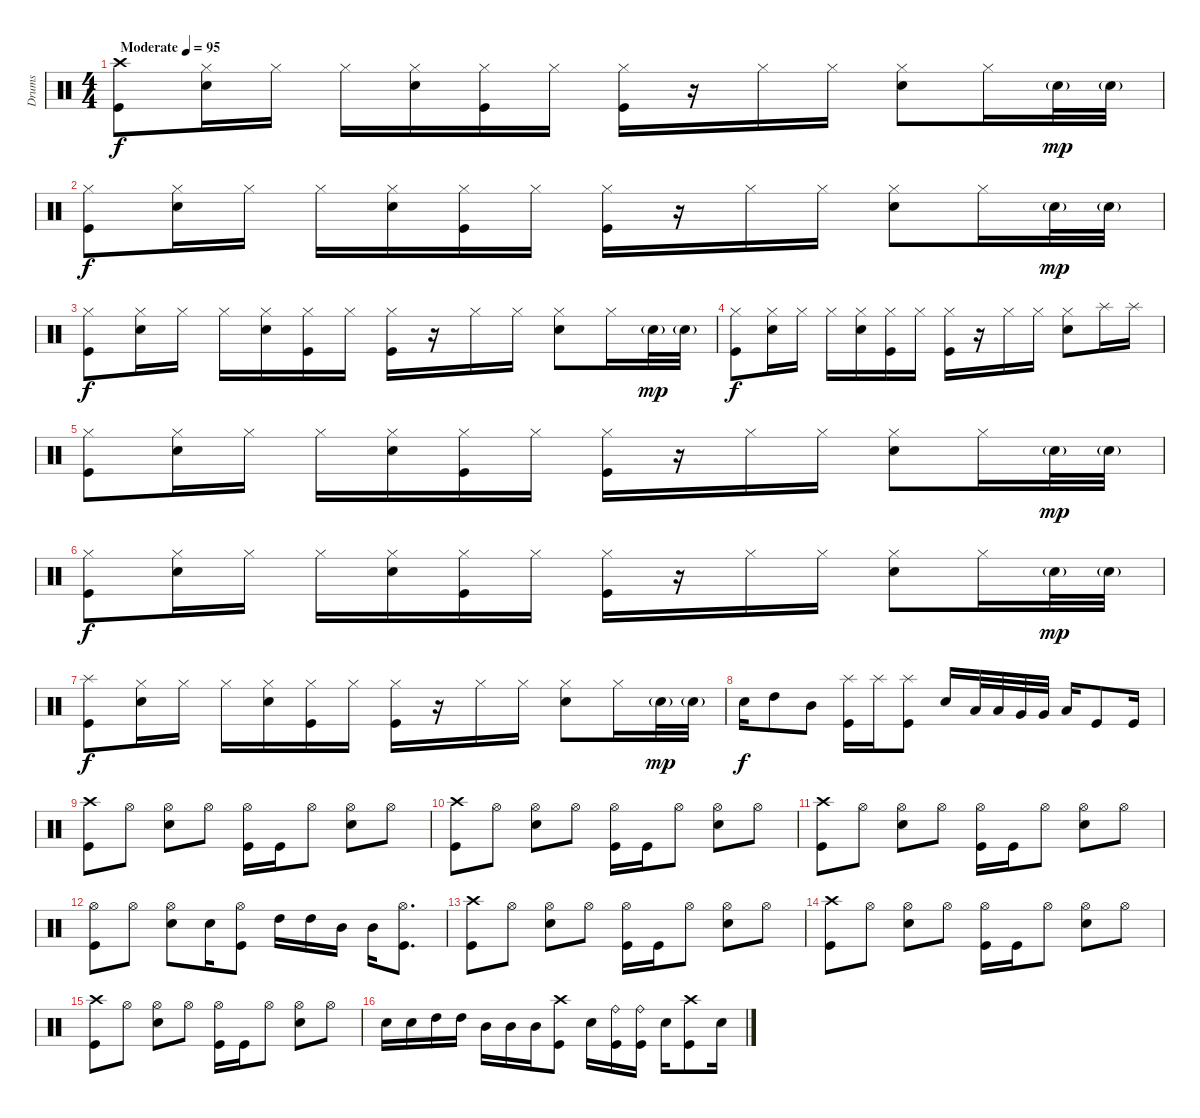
\track ("Drums" "Drums") {instrument percussion}
\staff {score}
\articulation defaults
\ts (4 4)
\tempo (95 "Moderate")
\clef neutral
\ks c
("Crash high (hit)" "Kick (hit)").8{dy f} ("Hi-Hat (closed)" "Electric Snare (hit)").16 "Hi-Hat (closed)".16 "Hi-Hat (closed)".16 ("Hi-Hat (closed)" "Electric Snare (hit)").16 ("Hi-Hat (closed)" "Kick (hit)").16 "Hi-Hat (closed)".16 ("Hi-Hat (closed)" "Kick (hit)").16 r.16 "Hi-Hat (closed)".16 "Hi-Hat (closed)".16 ("Hi-Hat (closed)" "Electric Snare (hit)").8 "Hi-Hat (closed)".16 "Electric Snare (hit)"{g}.32{dy mp} "Electric Snare (hit)"{g}.32 |
("Hi-Hat (closed)" "Kick (hit)").8{dy f} ("Hi-Hat (closed)" "Electric Snare (hit)").16 "Hi-Hat (closed)".16 "Hi-Hat (closed)".16 ("Hi-Hat (closed)" "Electric Snare (hit)").16 ("Hi-Hat (closed)" "Kick (hit)").16 "Hi-Hat (closed)".16 ("Hi-Hat (closed)" "Kick (hit)").16 r.16 "Hi-Hat (closed)".16 "Hi-Hat (closed)".16 ("Hi-Hat (closed)" "Electric Snare (hit)").8 "Hi-Hat (closed)".16 "Electric Snare (hit)"{g}.32{dy mp} "Electric Snare (hit)"{g}.32 |
("Hi-Hat (closed)" "Kick (hit)").8{dy f} ("Hi-Hat (closed)" "Electric Snare (hit)").16 "Hi-Hat (closed)".16 "Hi-Hat (closed)".16 ("Hi-Hat (closed)" "Electric Snare (hit)").16 ("Hi-Hat (closed)" "Kick (hit)").16 "Hi-Hat (closed)".16 ("Hi-Hat (closed)" "Kick (hit)").16 r.16 "Hi-Hat (closed)".16 "Hi-Hat (closed)".16 ("Hi-Hat (closed)" "Electric Snare (hit)").8 "Hi-Hat (closed)".16 "Electric Snare (hit)"{g}.32{dy mp} "Electric Snare (hit)"{g}.32 |
("Hi-Hat (closed)" "Kick (hit)").8{dy f} ("Hi-Hat (closed)" "Electric Snare (hit)").16 "Hi-Hat (closed)".16 "Hi-Hat (closed)".16 ("Hi-Hat (closed)" "Electric Snare (hit)").16 ("Hi-Hat (closed)" "Kick (hit)").16 "Hi-Hat (closed)".16 ("Hi-Hat (closed)" "Kick (hit)").16 r.16 "Hi-Hat (closed)".16 "Hi-Hat (closed)".16 ("Hi-Hat (closed)" "Electric Snare (hit)").8 "Splash (hit)".16 "Splash (hit)".16 |
("Hi-Hat (closed)" "Kick (hit)").8 ("Hi-Hat (closed)" "Electric Snare (hit)").16 "Hi-Hat (closed)".16 "Hi-Hat (closed)".16 ("Hi-Hat (closed)" "Electric Snare (hit)").16 ("Hi-Hat (closed)" "Kick (hit)").16 "Hi-Hat (closed)".16 ("Hi-Hat (closed)" "Kick (hit)").16 r.16 "Hi-Hat (closed)".16 "Hi-Hat (closed)".16 ("Hi-Hat (closed)" "Electric Snare (hit)").8 "Hi-Hat (closed)".16 "Electric Snare (hit)"{g}.32{dy mp} "Electric Snare (hit)"{g}.32 |
("Hi-Hat (closed)" "Kick (hit)").8{dy f} ("Hi-Hat (closed)" "Electric Snare (hit)").16 "Hi-Hat (closed)".16 "Hi-Hat (closed)".16 ("Hi-Hat (closed)" "Electric Snare (hit)").16 ("Hi-Hat (closed)" "Kick (hit)").16 "Hi-Hat (closed)".16 ("Hi-Hat (closed)" "Kick (hit)").16 r.16 "Hi-Hat (closed)".16 "Hi-Hat (closed)".16 ("Hi-Hat (closed)" "Electric Snare (hit)").8 "Hi-Hat (closed)".16 "Electric Snare (hit)"{g}.32{dy mp} "Electric Snare (hit)"{g}.32 |
("Splash (hit)" "Kick (hit)").8{dy f} ("Hi-Hat (closed)" "Electric Snare (hit)").16 "Hi-Hat (closed)".16 "Hi-Hat (closed)".16 ("Hi-Hat (closed)" "Electric Snare (hit)").16 ("Hi-Hat (closed)" "Kick (hit)").16 "Hi-Hat (closed)".16 ("Hi-Hat (closed)" "Kick (hit)").16 r.16 "Hi-Hat (closed)".16 "Hi-Hat (closed)".16 ("Hi-Hat (closed)" "Electric Snare (hit)").8 "Hi-Hat (closed)".16 "Electric Snare (hit)"{g}.32{dy mp} "Electric Snare (hit)"{g}.32 |
"Electric Snare (hit)".16{dy f} "High Tom (hit)".8 "Mid Tom (hit)".8 ("Splash (hit)" "Kick (hit)").16 "Splash (hit)".16 ("Splash (hit)" "Kick (hit)").8 "Electric Snare (hit)".16 "Low Tom (hit)".32 "Low Tom (hit)".32 "Very Low Tom (hit)".32 "Very Low Tom (hit)".32 "Low Floor Tom (hit)".16 "Kick (hit)".8 "Kick (hit)".16 |
("Crash high (hit)" "Kick (hit)").8 "Hi-Hat (open)".8 ("Hi-Hat (open)" "Electric Snare (hit)").8 "Hi-Hat (open)".8 ("Hi-Hat (open)" "Kick (hit)").16 "Kick (hit)".16 "Hi-Hat (open)".8 ("Hi-Hat (open)" "Electric Snare (hit)").8 "Hi-Hat (open)".8 |
("Crash high (hit)" "Kick (hit)").8 "Hi-Hat (open)".8 ("Hi-Hat (open)" "Electric Snare (hit)").8 "Hi-Hat (open)".8 ("Hi-Hat (open)" "Kick (hit)").16 "Kick (hit)".16 "Hi-Hat (open)".8 ("Hi-Hat (open)" "Electric Snare (hit)").8 "Hi-Hat (open)".8 |
("Crash high (hit)" "Kick (hit)").8 "Hi-Hat (open)".8 ("Hi-Hat (open)" "Electric Snare (hit)").8 "Hi-Hat (open)".8 ("Hi-Hat (open)" "Kick (hit)").16 "Kick (hit)".16 "Hi-Hat (open)".8 ("Hi-Hat (open)" "Electric Snare (hit)").8 "Hi-Hat (open)".8 |
("Hi-Hat (open)" "Kick (hit)").8 "Hi-Hat (open)".8 ("Hi-Hat (open)" "Electric Snare (hit)").8 "Electric Snare (hit)".16 ("Hi-Hat (open)" "Kick (hit)").8 "High Tom (hit)".16 "High Tom (hit)".16 "Mid Tom (hit)".16 "Mid Tom (hit)".16 ("Hi-Hat (open)" "Kick (hit)").8{d} |
("Crash high (hit)" "Kick (hit)").8 "Hi-Hat (open)".8 ("Hi-Hat (open)" "Electric Snare (hit)").8 "Hi-Hat (open)".8 ("Hi-Hat (open)" "Kick (hit)").16 "Kick (hit)".16 "Hi-Hat (open)".8 ("Hi-Hat (open)" "Electric Snare (hit)").8 "Hi-Hat (open)".8 |
("Crash high (hit)" "Kick (hit)").8 "Hi-Hat (open)".8 ("Hi-Hat (open)" "Electric Snare (hit)").8 "Hi-Hat (open)".8 ("Hi-Hat (open)" "Kick (hit)").16 "Kick (hit)".16 "Hi-Hat (open)".8 ("Hi-Hat (open)" "Electric Snare (hit)").8 "Hi-Hat (open)".8 |
("Crash high (hit)" "Kick (hit)").8 "Hi-Hat (open)".8 ("Hi-Hat (open)" "Electric Snare (hit)").8 "Hi-Hat (open)".8 ("Hi-Hat (open)" "Kick (hit)").16 "Kick (hit)".16 "Hi-Hat (open)".8 ("Hi-Hat (open)" "Electric Snare (hit)").8 "Hi-Hat (open)".8 |
"Electric Snare (hit)".16 "Electric Snare (hit)".16 "High Tom (hit)".16 "High Tom (hit)".16 "Mid Tom (hit)".16 "Mid Tom (hit)".16 "Mid Tom (hit)".16 ("Crash high (hit)" "Kick (hit)").8 "Electric Snare (hit)".16 ("Ride (bell)" "Kick (hit)").16 ("Ride (bell)" "Kick (hit)").16 "Electric Snare (hit)".16 ("Crash high (hit)" "Kick (hit)").8 "Electric Snare (hit)".16
